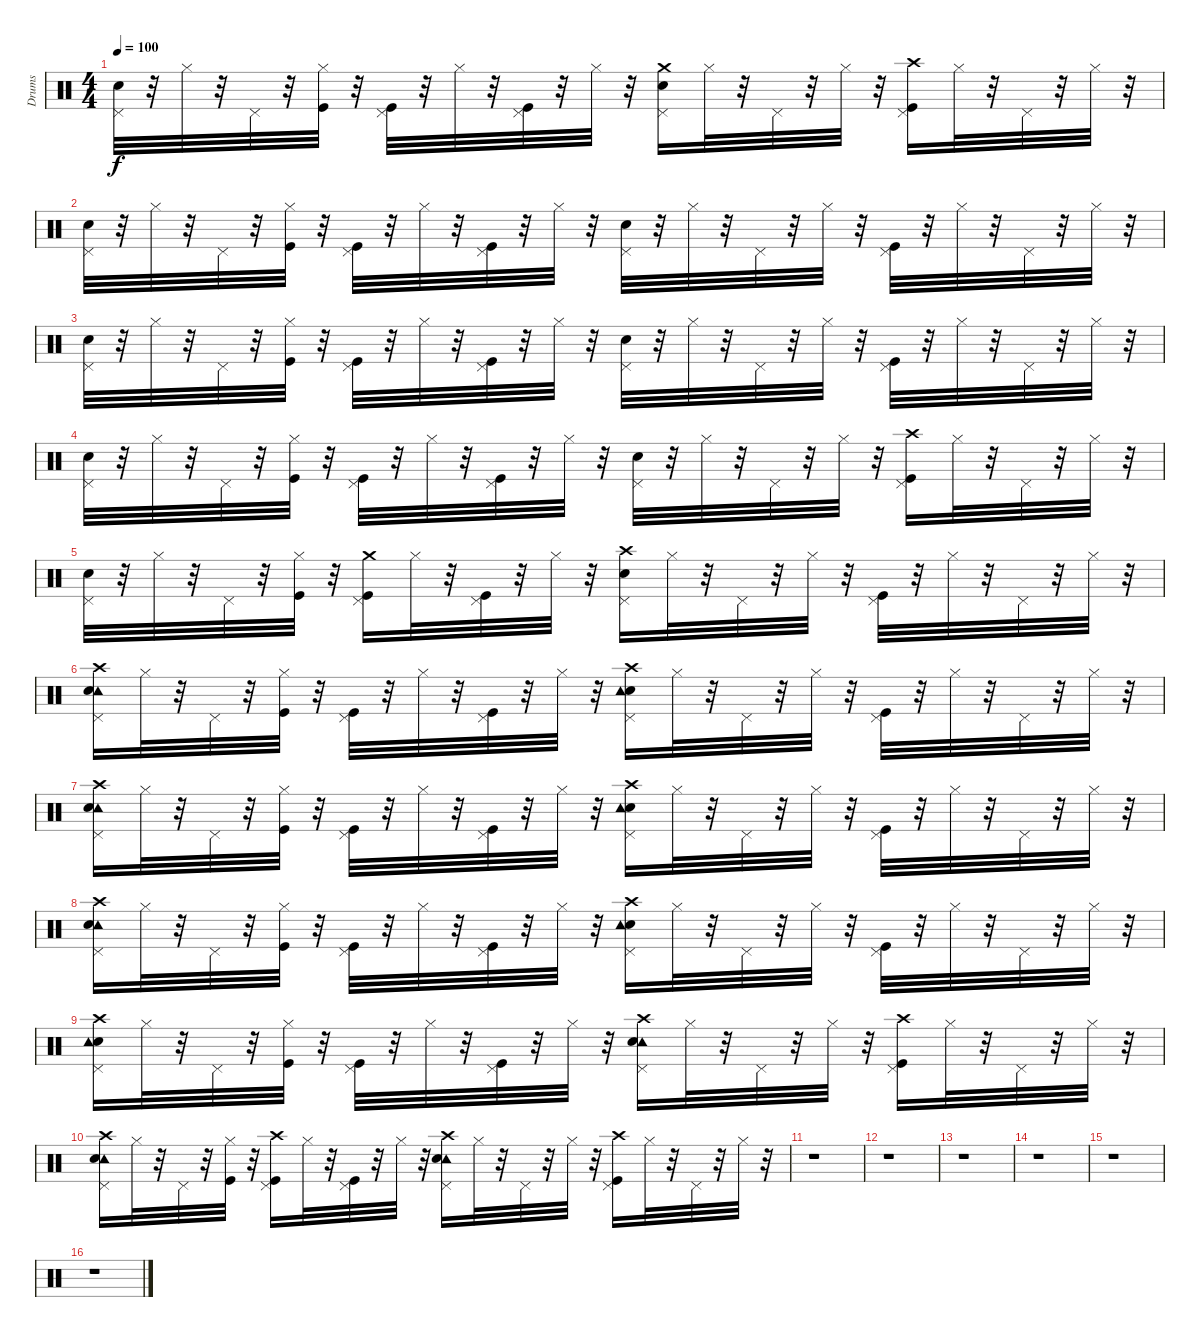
\track ("Drums" "Drums") {instrument percussion}
\staff {score}
\articulation defaults
\ts (4 4)
\tempo 100
\clef neutral
\ks c
("Pedal Hi-Hat (hit)" "Metronome (bell)").32{dy f} r.32 "Hi-Hat (closed)".32 r.32 "Pedal Hi-Hat (hit)".32 r.32 ("Kick (hit)" "Hi-Hat (closed)").32 r.32 ("Pedal Hi-Hat (hit)" "Kick (hit)").32 r.32 "Hi-Hat (closed)".32 r.32 ("Kick (hit)" "Pedal Hi-Hat (hit)").32 r.32 "Hi-Hat (closed)".32 r.32 ("Crash medium (hit)" "Metronome (bell)" "Pedal Hi-Hat (hit)").16 "Hi-Hat (closed)".32 r.32 "Pedal Hi-Hat (hit)".32 r.32 "Hi-Hat (closed)".32 r.32 ("Kick (hit)" "Pedal Hi-Hat (hit)" "Crash high (hit)").16 "Hi-Hat (closed)".32 r.32 "Pedal Hi-Hat (hit)".32 r.32 "Hi-Hat (closed)".32 r.32 |
("Metronome (bell)" "Pedal Hi-Hat (hit)").32 r.32 "Hi-Hat (closed)".32 r.32 "Pedal Hi-Hat (hit)".32 r.32 ("Hi-Hat (closed)" "Kick (hit)").32 r.32 ("Pedal Hi-Hat (hit)" "Kick (hit)").32 r.32 "Hi-Hat (closed)".32 r.32 ("Kick (hit)" "Pedal Hi-Hat (hit)").32 r.32 "Hi-Hat (closed)".32 r.32 ("Pedal Hi-Hat (hit)" "Metronome (bell)").32 r.32 "Hi-Hat (closed)".32 r.32 "Pedal Hi-Hat (hit)".32 r.32 "Hi-Hat (closed)".32 r.32 ("Pedal Hi-Hat (hit)" "Kick (hit)").32 r.32 "Hi-Hat (closed)".32 r.32 "Pedal Hi-Hat (hit)".32 r.32 "Hi-Hat (closed)".32 r.32 |
("Pedal Hi-Hat (hit)" "Metronome (bell)").32 r.32 "Hi-Hat (closed)".32 r.32 "Pedal Hi-Hat (hit)".32 r.32 ("Kick (hit)" "Hi-Hat (closed)").32 r.32 ("Pedal Hi-Hat (hit)" "Kick (hit)").32 r.32 "Hi-Hat (closed)".32 r.32 ("Kick (hit)" "Pedal Hi-Hat (hit)").32 r.32 "Hi-Hat (closed)".32 r.32 ("Metronome (bell)" "Pedal Hi-Hat (hit)").32 r.32 "Hi-Hat (closed)".32 r.32 "Pedal Hi-Hat (hit)".32 r.32 "Hi-Hat (closed)".32 r.32 ("Kick (hit)" "Pedal Hi-Hat (hit)").32 r.32 "Hi-Hat (closed)".32 r.32 "Pedal Hi-Hat (hit)".32 r.32 "Hi-Hat (closed)".32 r.32 |
("Pedal Hi-Hat (hit)" "Metronome (bell)").32 r.32 "Hi-Hat (closed)".32 r.32 "Pedal Hi-Hat (hit)".32 r.32 ("Hi-Hat (closed)" "Kick (hit)").32 r.32 ("Pedal Hi-Hat (hit)" "Kick (hit)").32 r.32 "Hi-Hat (closed)".32 r.32 ("Kick (hit)" "Pedal Hi-Hat (hit)").32 r.32 "Hi-Hat (closed)".32 r.32 ("Metronome (bell)" "Pedal Hi-Hat (hit)").32 r.32 "Hi-Hat (closed)".32 r.32 "Pedal Hi-Hat (hit)".32 r.32 "Hi-Hat (closed)".32 r.32 ("Kick (hit)" "Pedal Hi-Hat (hit)" "Crash high (hit)").16 "Hi-Hat (closed)".32 r.32 "Pedal Hi-Hat (hit)".32 r.32 "Hi-Hat (closed)".32 r.32 |
("Metronome (bell)" "Pedal Hi-Hat (hit)").32 r.32 "Hi-Hat (closed)".32 r.32 "Pedal Hi-Hat (hit)".32 r.32 ("Hi-Hat (closed)" "Kick (hit)").32 r.32 ("Kick (hit)" "Crash medium (hit)" "Pedal Hi-Hat (hit)").16 "Hi-Hat (closed)".32 r.32 ("Kick (hit)" "Pedal Hi-Hat (hit)").32 r.32 "Hi-Hat (closed)".32 r.32 ("Crash high (hit)" "Pedal Hi-Hat (hit)" "Metronome (bell)").16 "Hi-Hat (closed)".32 r.32 "Pedal Hi-Hat (hit)".32 r.32 "Hi-Hat (closed)".32 r.32 ("Pedal Hi-Hat (hit)" "Kick (hit)").32 r.32 "Hi-Hat (closed)".32 r.32 "Pedal Hi-Hat (hit)".32 r.32 "Hi-Hat (closed)".32 r.32 |
("Tambourine (hit)" "Metronome (bell)" "Crash high (hit)" "Pedal Hi-Hat (hit)").16 "Hi-Hat (closed)".32 r.32 "Pedal Hi-Hat (hit)".32 r.32 ("Hi-Hat (closed)" "Kick (hit)").32 r.32 ("Kick (hit)" "Pedal Hi-Hat (hit)").32 r.32 "Hi-Hat (closed)".32 r.32 ("Kick (hit)" "Pedal Hi-Hat (hit)").32 r.32 "Hi-Hat (closed)".32 r.32 ("Crash high (hit)" "Metronome (bell)" "Tambourine (hit)" "Pedal Hi-Hat (hit)").16 "Hi-Hat (closed)".32 r.32 "Pedal Hi-Hat (hit)".32 r.32 "Hi-Hat (closed)".32 r.32 ("Kick (hit)" "Pedal Hi-Hat (hit)").32 r.32 "Hi-Hat (closed)".32 r.32 "Pedal Hi-Hat (hit)".32 r.32 "Hi-Hat (closed)".32 r.32 |
("Tambourine (hit)" "Crash high (hit)" "Pedal Hi-Hat (hit)" "Metronome (bell)").16 "Hi-Hat (closed)".32 r.32 "Pedal Hi-Hat (hit)".32 r.32 ("Hi-Hat (closed)" "Kick (hit)").32 r.32 ("Pedal Hi-Hat (hit)" "Kick (hit)").32 r.32 "Hi-Hat (closed)".32 r.32 ("Pedal Hi-Hat (hit)" "Kick (hit)").32 r.32 "Hi-Hat (closed)".32 r.32 ("Pedal Hi-Hat (hit)" "Metronome (bell)" "Crash high (hit)" "Tambourine (hit)").16 "Hi-Hat (closed)".32 r.32 "Pedal Hi-Hat (hit)".32 r.32 "Hi-Hat (closed)".32 r.32 ("Pedal Hi-Hat (hit)" "Kick (hit)").32 r.32 "Hi-Hat (closed)".32 r.32 "Pedal Hi-Hat (hit)".32 r.32 "Hi-Hat (closed)".32 r.32 |
("Crash high (hit)" "Tambourine (hit)" "Metronome (bell)" "Pedal Hi-Hat (hit)").16 "Hi-Hat (closed)".32 r.32 "Pedal Hi-Hat (hit)".32 r.32 ("Hi-Hat (closed)" "Kick (hit)").32 r.32 ("Kick (hit)" "Pedal Hi-Hat (hit)").32 r.32 "Hi-Hat (closed)".32 r.32 ("Kick (hit)" "Pedal Hi-Hat (hit)").32 r.32 "Hi-Hat (closed)".32 r.32 ("Crash high (hit)" "Metronome (bell)" "Pedal Hi-Hat (hit)" "Tambourine (hit)").16 "Hi-Hat (closed)".32 r.32 "Pedal Hi-Hat (hit)".32 r.32 "Hi-Hat (closed)".32 r.32 ("Kick (hit)" "Pedal Hi-Hat (hit)").32 r.32 "Hi-Hat (closed)".32 r.32 "Pedal Hi-Hat (hit)".32 r.32 "Hi-Hat (closed)".32 r.32 |
("Pedal Hi-Hat (hit)" "Metronome (bell)" "Crash high (hit)" "Tambourine (hit)").16 "Hi-Hat (closed)".32 r.32 "Pedal Hi-Hat (hit)".32 r.32 ("Kick (hit)" "Hi-Hat (closed)").32 r.32 ("Pedal Hi-Hat (hit)" "Kick (hit)").32 r.32 "Hi-Hat (closed)".32 r.32 ("Pedal Hi-Hat (hit)" "Kick (hit)").32 r.32 "Hi-Hat (closed)".32 r.32 ("Crash high (hit)" "Pedal Hi-Hat (hit)" "Tambourine (hit)" "Metronome (bell)").16 "Hi-Hat (closed)".32 r.32 "Pedal Hi-Hat (hit)".32 r.32 "Hi-Hat (closed)".32 r.32 ("Kick (hit)" "Crash high (hit)" "Pedal Hi-Hat (hit)").16 "Hi-Hat (closed)".32 r.32 "Pedal Hi-Hat (hit)".32 r.32 "Hi-Hat (closed)".32 r.32 |
("Pedal Hi-Hat (hit)" "Crash high (hit)" "Tambourine (hit)" "Metronome (bell)").16 "Hi-Hat (closed)".32 r.32 "Pedal Hi-Hat (hit)".32 r.32 ("Kick (hit)" "Hi-Hat (closed)").32 r.32 ("Crash high (hit)" "Pedal Hi-Hat (hit)" "Kick (hit)").16 "Hi-Hat (closed)".32 r.32 ("Pedal Hi-Hat (hit)" "Kick (hit)").32 r.32 "Hi-Hat (closed)".32 r.32 ("Tambourine (hit)" "Pedal Hi-Hat (hit)" "Metronome (bell)" "Crash high (hit)").16 "Hi-Hat (closed)".32 r.32 "Pedal Hi-Hat (hit)".32 r.32 "Hi-Hat (closed)".32 r.32 ("Kick (hit)" "Crash high (hit)" "Pedal Hi-Hat (hit)").16 "Hi-Hat (closed)".32 r.32 "Pedal Hi-Hat (hit)".32 r.32 "Hi-Hat (closed)".32 r.32 |
r.1 |
r.1 |
r.1 |
r.1 |
r.1 |
r.1
